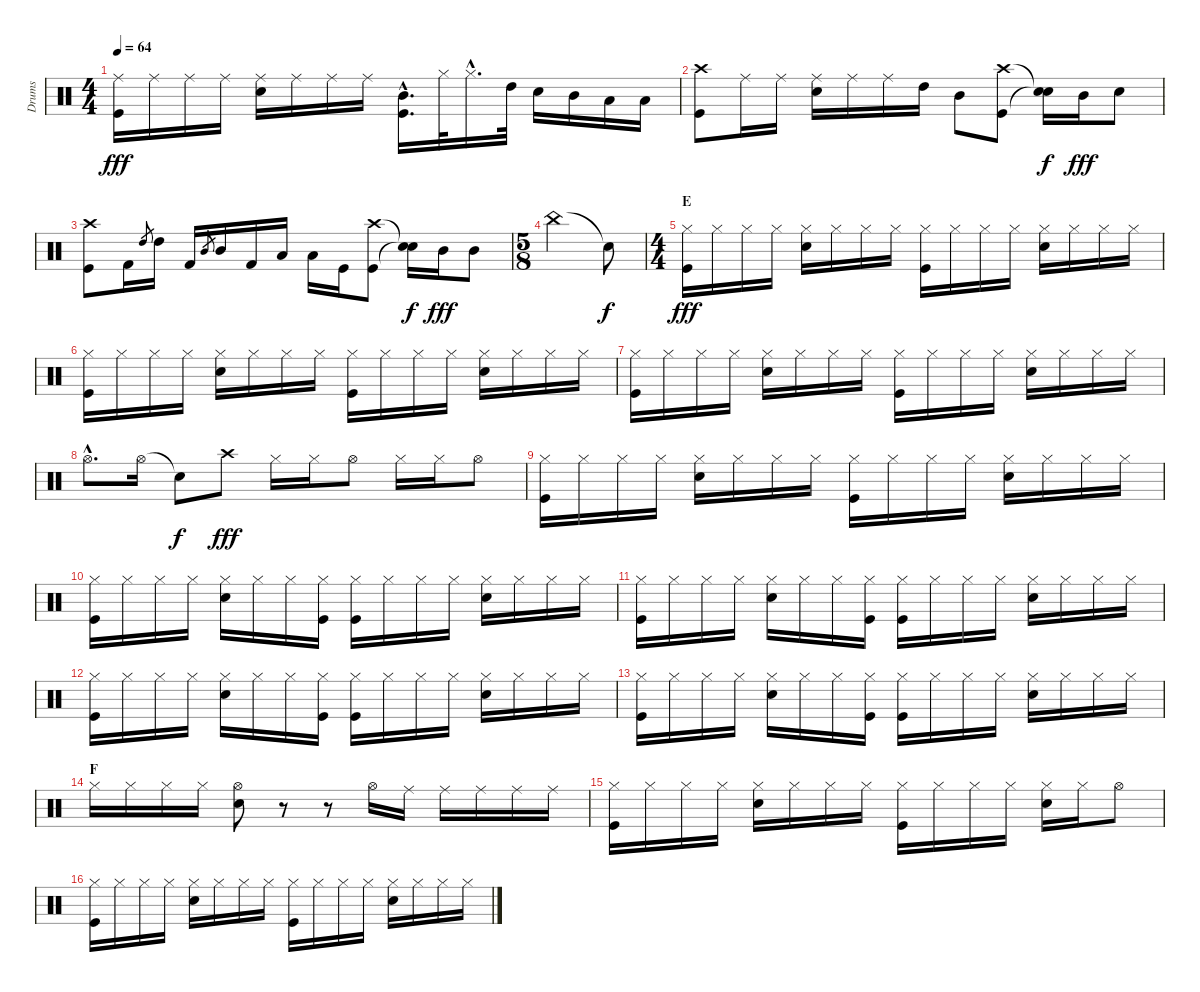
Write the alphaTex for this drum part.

\track ("Drums" "Drums") {instrument percussion}
\staff {score}
\articulation defaults
\ts (4 4)
\tempo 64
\clef neutral
\ks c
("Ride (middle)" "Kick (hit)").16{dy fff} "Ride (middle)".16 "Ride (middle)".16 "Ride (middle)".16 ("Ride (middle)" "Snare (hit) 2").16 "Ride (middle)".16 "Ride (middle)".16 "Ride (middle)".16 ("Mid Tom (hit)"{hac} "Kick (hit)"{hac}).16{d} "Hi-Hat (closed)".32 "Hi-Hat (closed)"{hac}.16{d} "High Tom (hit)".32 "Snare (hit) 2".16 "Mid Tom (hit)".16 "Low Tom (hit)".16 "Low Tom (hit)".16 |
("Crash high (hit)" "Kick (hit)").8 "Ride (middle)".16 "Ride (middle)".16 ("Ride (middle)" "Snare (hit) 2").16 "Ride (middle)".16 "Ride (middle)".16 "High Tom (hit)".16 "Mid Tom (hit)".8 ("Crash high (hit)" "Kick (hit)").8 ("Snare (hit)"{t} "Snare (hit)"{t}).16{dy f} "Mid Tom (hit)".16{dy fff} "Snare (hit) 2".8 |
("Crash high (hit)" "Kick (hit)").8 "Kick (hit) 2".16 "High Tom (hit)".8{gr} "High Tom (hit)".16 "Kick (hit) 2".16 "Mid Tom (hit)".8{gr} "Mid Tom (hit)".16 "Kick (hit) 2".16 "Low Tom (hit)".16 "Low Tom (hit)".16 "Kick (hit)".16 ("Crash high (hit)" "Kick (hit)").8 ("Snare (hit)"{t} "Snare (hit)"{t}).16{dy f} "Mid Tom (hit)".16{dy fff} "Mid Tom (hit)".8 |
\ts (5 8)
"China (hit)".2 "Snare (hit)"{t}.8{dy f} |
\ts (4 4)
\section ("" "E")
("Hi-Hat (closed)" "Kick (hit)").16{dy fff} "Hi-Hat (closed)".16 "Hi-Hat (closed)".16 "Hi-Hat (closed)".16 ("Hi-Hat (closed)" "Electric Snare (hit)").16 "Hi-Hat (closed)".16 "Hi-Hat (closed)".16 "Hi-Hat (closed)".16 ("Hi-Hat (closed)" "Kick (hit)").16 "Hi-Hat (closed)".16 "Hi-Hat (closed)".16 "Hi-Hat (closed)".16 ("Hi-Hat (closed)" "Electric Snare (hit)").16 "Hi-Hat (closed)".16 "Hi-Hat (closed)".16 "Hi-Hat (closed)".16 |
("Hi-Hat (closed)" "Kick (hit)").16 "Hi-Hat (closed)".16 "Hi-Hat (closed)".16 "Hi-Hat (closed)".16 ("Hi-Hat (closed)" "Electric Snare (hit)").16 "Hi-Hat (closed)".16 "Hi-Hat (closed)".16 "Hi-Hat (closed)".16 ("Hi-Hat (closed)" "Kick (hit)").16 "Hi-Hat (closed)".16 "Hi-Hat (closed)".16 "Hi-Hat (closed)".16 ("Hi-Hat (closed)" "Electric Snare (hit)").16 "Hi-Hat (closed)".16 "Hi-Hat (closed)".16 "Hi-Hat (closed)".16 |
("Hi-Hat (closed)" "Kick (hit)").16 "Hi-Hat (closed)".16 "Hi-Hat (closed)".16 "Hi-Hat (closed)".16 ("Hi-Hat (closed)" "Electric Snare (hit)").16 "Hi-Hat (closed)".16 "Hi-Hat (closed)".16 "Hi-Hat (closed)".16 ("Hi-Hat (closed)" "Kick (hit)").16 "Hi-Hat (closed)".16 "Hi-Hat (closed)".16 "Hi-Hat (closed)".16 ("Hi-Hat (closed)" "Electric Snare (hit)").16 "Hi-Hat (closed)".16 "Hi-Hat (closed)".16 "Hi-Hat (closed)".16 |
"Hi-Hat (open)"{hac}.8{d} "Hi-Hat (open)".16 "Snare (hit)"{t}.8{dy f} "Crash high (hit)".8{dy fff} "Hi-Hat (closed)".16 "Hi-Hat (closed)".16 "Hi-Hat (open)".8 "Hi-Hat (closed)".16 "Hi-Hat (closed)".16 "Hi-Hat (open)".8 |
("Hi-Hat (closed)" "Kick (hit)").16 "Hi-Hat (closed)".16 "Hi-Hat (closed)".16 "Hi-Hat (closed)".16 ("Hi-Hat (closed)" "Snare (hit) 2").16 "Hi-Hat (closed)".16 "Hi-Hat (closed)".16 "Hi-Hat (closed)".16 ("Hi-Hat (closed)" "Kick (hit)").16 "Hi-Hat (closed)".16 "Hi-Hat (closed)".16 "Hi-Hat (closed)".16 ("Hi-Hat (closed)" "Snare (hit) 2").16 "Hi-Hat (closed)".16 "Hi-Hat (closed)".16 "Hi-Hat (closed)".16 |
("Hi-Hat (closed)" "Kick (hit)").16 "Hi-Hat (closed)".16 "Hi-Hat (closed)".16 "Hi-Hat (closed)".16 ("Hi-Hat (closed)" "Snare (hit) 2").16 "Hi-Hat (closed)".16 "Hi-Hat (closed)".16 ("Hi-Hat (closed)" "Kick (hit)").16 ("Hi-Hat (closed)" "Kick (hit)").16 "Hi-Hat (closed)".16 "Hi-Hat (closed)".16 "Hi-Hat (closed)".16 ("Hi-Hat (closed)" "Snare (hit) 2").16 "Hi-Hat (closed)".16 "Hi-Hat (closed)".16 "Hi-Hat (closed)".16 |
("Hi-Hat (closed)" "Kick (hit)").16 "Hi-Hat (closed)".16 "Hi-Hat (closed)".16 "Hi-Hat (closed)".16 ("Hi-Hat (closed)" "Snare (hit) 2").16 "Hi-Hat (closed)".16 "Hi-Hat (closed)".16 ("Hi-Hat (closed)" "Kick (hit)").16 ("Hi-Hat (closed)" "Kick (hit)").16 "Hi-Hat (closed)".16 "Hi-Hat (closed)".16 "Hi-Hat (closed)".16 ("Hi-Hat (closed)" "Snare (hit) 2").16 "Hi-Hat (closed)".16 "Hi-Hat (closed)".16 "Hi-Hat (closed)".16 |
("Hi-Hat (closed)" "Kick (hit)").16 "Hi-Hat (closed)".16 "Hi-Hat (closed)".16 "Hi-Hat (closed)".16 ("Hi-Hat (closed)" "Snare (hit) 2").16 "Hi-Hat (closed)".16 "Hi-Hat (closed)".16 ("Hi-Hat (closed)" "Kick (hit)").16 ("Hi-Hat (closed)" "Kick (hit)").16 "Hi-Hat (closed)".16 "Hi-Hat (closed)".16 "Hi-Hat (closed)".16 ("Hi-Hat (closed)" "Snare (hit) 2").16 "Hi-Hat (closed)".16 "Hi-Hat (closed)".16 "Hi-Hat (closed)".16 |
("Hi-Hat (closed)" "Kick (hit)").16 "Hi-Hat (closed)".16 "Hi-Hat (closed)".16 "Hi-Hat (closed)".16 ("Hi-Hat (closed)" "Snare (hit) 2").16 "Hi-Hat (closed)".16 "Hi-Hat (closed)".16 ("Hi-Hat (closed)" "Kick (hit)").16 ("Hi-Hat (closed)" "Kick (hit)").16 "Hi-Hat (closed)".16 "Hi-Hat (closed)".16 "Hi-Hat (closed)".16 ("Hi-Hat (closed)" "Snare (hit) 2").16 "Hi-Hat (closed)".16 "Hi-Hat (closed)".16 "Hi-Hat (closed)".16 |
\section ("" "F")
"Hi-Hat (closed)".16 "Hi-Hat (closed)".16 "Hi-Hat (closed)".16 "Hi-Hat (closed)".16 ("Hi-Hat (open)" "Snare (hit) 2").8 r.8 r.8 "Hi-Hat (open)".16 "Ride (middle)".16 "Ride (middle)".16 "Ride (middle)".16 "Ride (middle)".16 "Ride (middle)".16 |
("Hi-Hat (closed)" "Kick (hit)").16 "Hi-Hat (closed)".16 "Hi-Hat (closed)".16 "Hi-Hat (closed)".16 ("Hi-Hat (closed)" "Snare (hit) 2").16 "Hi-Hat (closed)".16 "Hi-Hat (closed)".16 "Hi-Hat (closed)".16 ("Hi-Hat (closed)" "Kick (hit)").16 "Hi-Hat (closed)".16 "Hi-Hat (closed)".16 "Hi-Hat (closed)".16 ("Hi-Hat (closed)" "Snare (hit) 2").16 "Hi-Hat (closed)".16 "Hi-Hat (open)".8 |
("Hi-Hat (closed)" "Kick (hit)").16 "Hi-Hat (closed)".16 "Hi-Hat (closed)".16 "Hi-Hat (closed)".16 ("Hi-Hat (closed)" "Electric Snare (hit)").16 "Hi-Hat (closed)".16 "Hi-Hat (closed)".16 "Hi-Hat (closed)".16 ("Hi-Hat (closed)" "Kick (hit)").16 "Hi-Hat (closed)".16 "Hi-Hat (closed)".16 "Hi-Hat (closed)".16 ("Hi-Hat (closed)" "Electric Snare (hit)").16 "Hi-Hat (closed)".16 "Hi-Hat (closed)".16 "Hi-Hat (closed)".16
